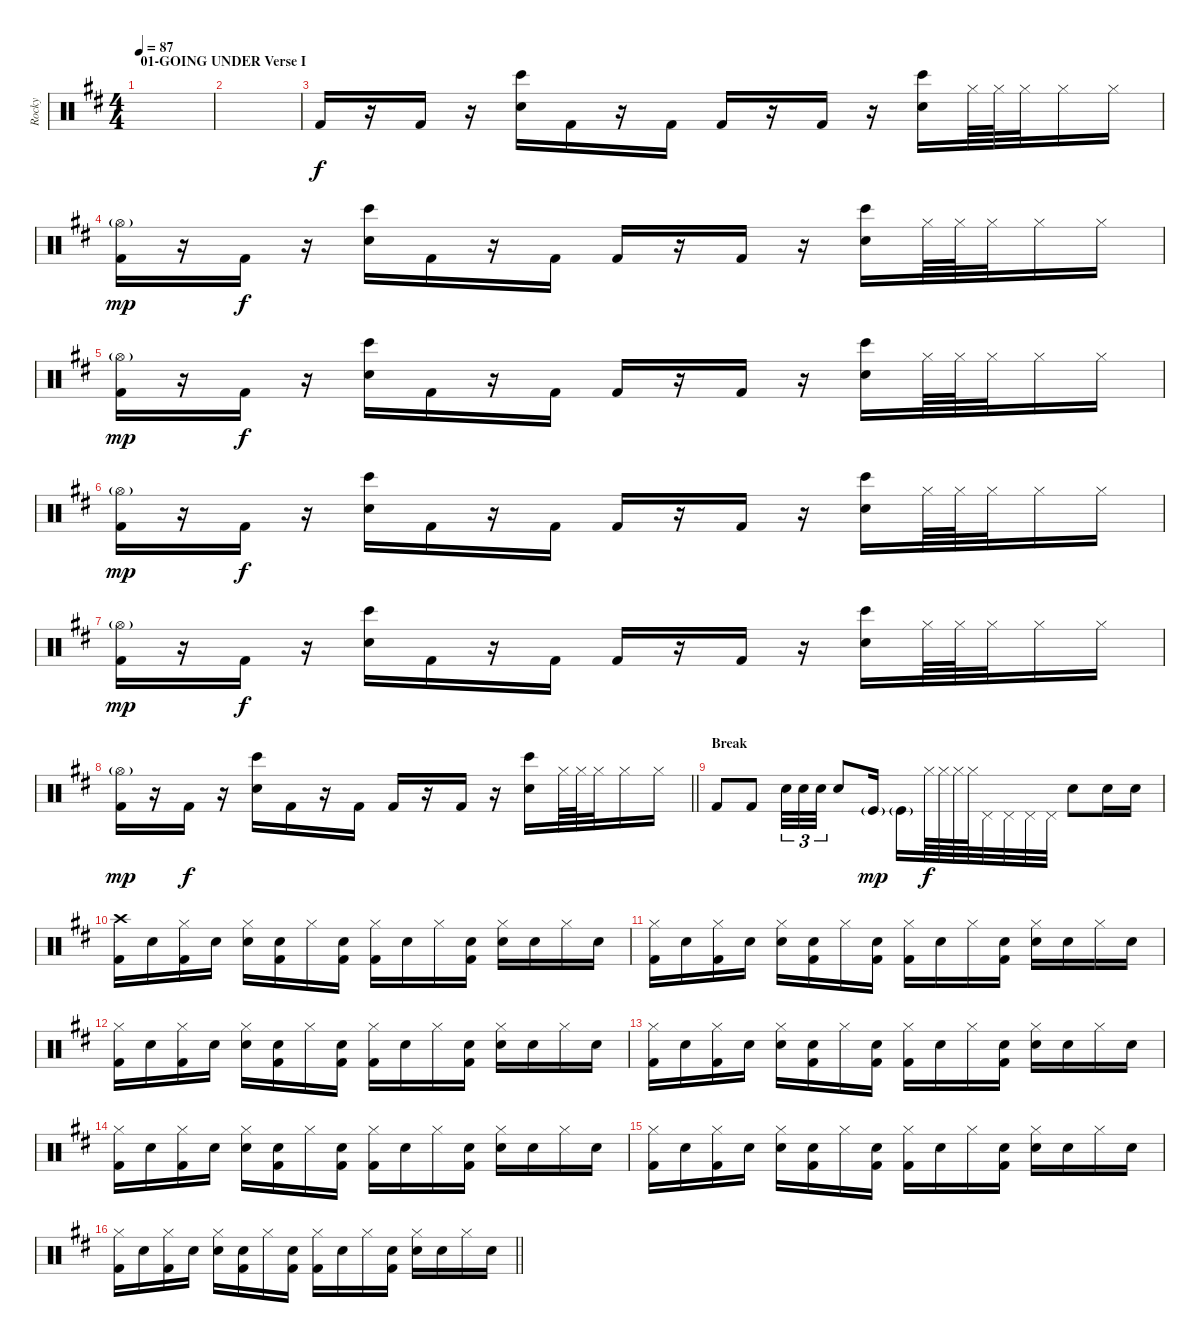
\track ("Rocky" "Rocky") {instrument percussion}
\staff {score}
\articulation defaults
\ts (4 4)
\section ("" "01-GOING UNDER Verse I")
\tempo 87
\clef neutral
\ks d
|
|
"Kick (hit) 2".16 r.16 "Kick (hit) 2".16 r.16 ("Bongo High (hit)" "Snare (hit) 2").16 "Kick (hit) 2".16 r.16 "Kick (hit) 2".16 "Kick (hit) 2".16 r.16 "Kick (hit) 2".16 r.16 ("Bongo High (hit)" "Snare (hit) 2").16 "Hi-Hat (closed)".64 "Hi-Hat (closed)".64 "Hi-Hat (closed)".32 "Hi-Hat (closed)".16 "Hi-Hat (closed)".16 |
("Hi-Hat (open)"{g} "Kick (hit) 2").16{dy mp} r.16 "Kick (hit) 2".16{dy f} r.16 ("Bongo High (hit)" "Snare (hit) 2").16 "Kick (hit) 2".16 r.16 "Kick (hit) 2".16 "Kick (hit) 2".16 r.16 "Kick (hit) 2".16 r.16 ("Bongo High (hit)" "Snare (hit) 2").16 "Hi-Hat (closed)".64 "Hi-Hat (closed)".64 "Hi-Hat (closed)".32 "Hi-Hat (closed)".16 "Hi-Hat (closed)".16 |
("Hi-Hat (open)"{g} "Kick (hit) 2").16{dy mp} r.16 "Kick (hit) 2".16{dy f} r.16 ("Bongo High (hit)" "Snare (hit) 2").16 "Kick (hit) 2".16 r.16 "Kick (hit) 2".16 "Kick (hit) 2".16 r.16 "Kick (hit) 2".16 r.16 ("Bongo High (hit)" "Snare (hit) 2").16 "Hi-Hat (closed)".64 "Hi-Hat (closed)".64 "Hi-Hat (closed)".32 "Hi-Hat (closed)".16 "Hi-Hat (closed)".16 |
("Hi-Hat (open)"{g} "Kick (hit) 2").16{dy mp} r.16 "Kick (hit) 2".16{dy f} r.16 ("Bongo High (hit)" "Snare (hit) 2").16 "Kick (hit) 2".16 r.16 "Kick (hit) 2".16 "Kick (hit) 2".16 r.16 "Kick (hit) 2".16 r.16 ("Bongo High (hit)" "Snare (hit) 2").16 "Hi-Hat (closed)".64 "Hi-Hat (closed)".64 "Hi-Hat (closed)".32 "Hi-Hat (closed)".16 "Hi-Hat (closed)".16 |
("Hi-Hat (open)"{g} "Kick (hit) 2").16{dy mp} r.16 "Kick (hit) 2".16{dy f} r.16 ("Bongo High (hit)" "Snare (hit) 2").16 "Kick (hit) 2".16 r.16 "Kick (hit) 2".16 "Kick (hit) 2".16 r.16 "Kick (hit) 2".16 r.16 ("Bongo High (hit)" "Snare (hit) 2").16 "Hi-Hat (closed)".64 "Hi-Hat (closed)".64 "Hi-Hat (closed)".32 "Hi-Hat (closed)".16 "Hi-Hat (closed)".16 |
\barLineRight lightlight
("Hi-Hat (open)"{g} "Kick (hit) 2").16{dy mp} r.16 "Kick (hit) 2".16{dy f} r.16 ("Bongo High (hit)" "Snare (hit) 2").16 "Kick (hit) 2".16 r.16 "Kick (hit) 2".16 "Kick (hit) 2".16 r.16 "Kick (hit) 2".16 r.16 ("Bongo High (hit)" "Snare (hit) 2").16 "Hi-Hat (closed)".64 "Hi-Hat (closed)".64 "Hi-Hat (closed)".32 "Hi-Hat (closed)".16 "Hi-Hat (closed)".16 |
\section ("" "Break")
"Kick (hit) 2".8 "Kick (hit) 2".8 "Electric Snare (hit)".32{tu (3 2)} "Electric Snare (hit)".32{tu (3 2)} "Electric Snare (hit)".32{tu (3 2)} "Electric Snare (hit)".8 "Kick (hit)"{g}.16{dy mp} "Kick (hit)"{g}.16 "Hi-Hat (closed)".64{dy f} "Hi-Hat (closed)".64 "Hi-Hat (closed)".64 "Hi-Hat (closed)".64 "Pedal Hi-Hat (hit)".32 "Pedal Hi-Hat (hit)".32 "Pedal Hi-Hat (hit)".32 "Pedal Hi-Hat (hit)".32 "Electric Snare (hit)".8 "Electric Snare (hit)".16 "Electric Snare (hit)".16 |
("Crash high (hit)" "Kick (hit) 2").16 "Snare (hit)".16 ("Hi-Hat (closed)" "Kick (hit) 2").16 "Snare (hit)".16 ("Hi-Hat (closed)" "Electric Snare (hit)").16 ("Snare (hit)" "Kick (hit) 2").16 "Hi-Hat (closed)".16 ("Snare (hit)" "Kick (hit) 2").16 ("Hi-Hat (closed)" "Kick (hit) 2").16 "Snare (hit)".16 "Hi-Hat (closed)".16 ("Snare (hit)" "Kick (hit) 2").16 ("Hi-Hat (closed)" "Electric Snare (hit)").16 "Snare (hit)".16 "Hi-Hat (closed)".16 "Snare (hit)".16 |
("Hi-Hat (closed)" "Kick (hit) 2").16 "Snare (hit)".16 ("Hi-Hat (closed)" "Kick (hit) 2").16 "Snare (hit)".16 ("Hi-Hat (closed)" "Electric Snare (hit)").16 ("Snare (hit)" "Kick (hit) 2").16 "Hi-Hat (closed)".16 ("Snare (hit)" "Kick (hit) 2").16 ("Hi-Hat (closed)" "Kick (hit) 2").16 "Snare (hit)".16 "Hi-Hat (closed)".16 ("Snare (hit)" "Kick (hit) 2").16 ("Hi-Hat (closed)" "Electric Snare (hit)").16 "Snare (hit)".16 "Hi-Hat (closed)".16 "Snare (hit)".16 |
("Hi-Hat (closed)" "Kick (hit) 2").16 "Snare (hit)".16 ("Hi-Hat (closed)" "Kick (hit) 2").16 "Snare (hit)".16 ("Hi-Hat (closed)" "Electric Snare (hit)").16 ("Snare (hit)" "Kick (hit) 2").16 "Hi-Hat (closed)".16 ("Snare (hit)" "Kick (hit) 2").16 ("Hi-Hat (closed)" "Kick (hit) 2").16 "Snare (hit)".16 "Hi-Hat (closed)".16 ("Snare (hit)" "Kick (hit) 2").16 ("Hi-Hat (closed)" "Electric Snare (hit)").16 "Snare (hit)".16 "Hi-Hat (closed)".16 "Snare (hit)".16 |
("Hi-Hat (closed)" "Kick (hit) 2").16 "Snare (hit)".16 ("Hi-Hat (closed)" "Kick (hit) 2").16 "Snare (hit)".16 ("Hi-Hat (closed)" "Electric Snare (hit)").16 ("Snare (hit)" "Kick (hit) 2").16 "Hi-Hat (closed)".16 ("Snare (hit)" "Kick (hit) 2").16 ("Hi-Hat (closed)" "Kick (hit) 2").16 "Snare (hit)".16 "Hi-Hat (closed)".16 ("Snare (hit)" "Kick (hit) 2").16 ("Hi-Hat (closed)" "Electric Snare (hit)").16 "Snare (hit)".16 "Hi-Hat (closed)".16 "Snare (hit)".16 |
("Hi-Hat (closed)" "Kick (hit) 2").16 "Snare (hit)".16 ("Hi-Hat (closed)" "Kick (hit) 2").16 "Snare (hit)".16 ("Hi-Hat (closed)" "Electric Snare (hit)").16 ("Snare (hit)" "Kick (hit) 2").16 "Hi-Hat (closed)".16 ("Snare (hit)" "Kick (hit) 2").16 ("Hi-Hat (closed)" "Kick (hit) 2").16 "Snare (hit)".16 "Hi-Hat (closed)".16 ("Snare (hit)" "Kick (hit) 2").16 ("Hi-Hat (closed)" "Electric Snare (hit)").16 "Snare (hit)".16 "Hi-Hat (closed)".16 "Snare (hit)".16 |
("Hi-Hat (closed)" "Kick (hit) 2").16 "Snare (hit)".16 ("Hi-Hat (closed)" "Kick (hit) 2").16 "Snare (hit)".16 ("Hi-Hat (closed)" "Electric Snare (hit)").16 ("Snare (hit)" "Kick (hit) 2").16 "Hi-Hat (closed)".16 ("Snare (hit)" "Kick (hit) 2").16 ("Hi-Hat (closed)" "Kick (hit) 2").16 "Snare (hit)".16 "Hi-Hat (closed)".16 ("Snare (hit)" "Kick (hit) 2").16 ("Hi-Hat (closed)" "Electric Snare (hit)").16 "Snare (hit)".16 "Hi-Hat (closed)".16 "Snare (hit)".16 |
\barLineRight lightlight
("Hi-Hat (closed)" "Kick (hit) 2").16 "Snare (hit)".16 ("Hi-Hat (closed)" "Kick (hit) 2").16 "Snare (hit)".16 ("Hi-Hat (closed)" "Electric Snare (hit)").16 ("Snare (hit)" "Kick (hit) 2").16 "Hi-Hat (closed)".16 ("Snare (hit)" "Kick (hit) 2").16 ("Hi-Hat (closed)" "Kick (hit) 2").16 "Snare (hit)".16 "Hi-Hat (closed)".16 ("Snare (hit)" "Kick (hit) 2").16 ("Hi-Hat (closed)" "Electric Snare (hit)").16 "Snare (hit)".16 "Hi-Hat (closed)".16 "Snare (hit)".16
